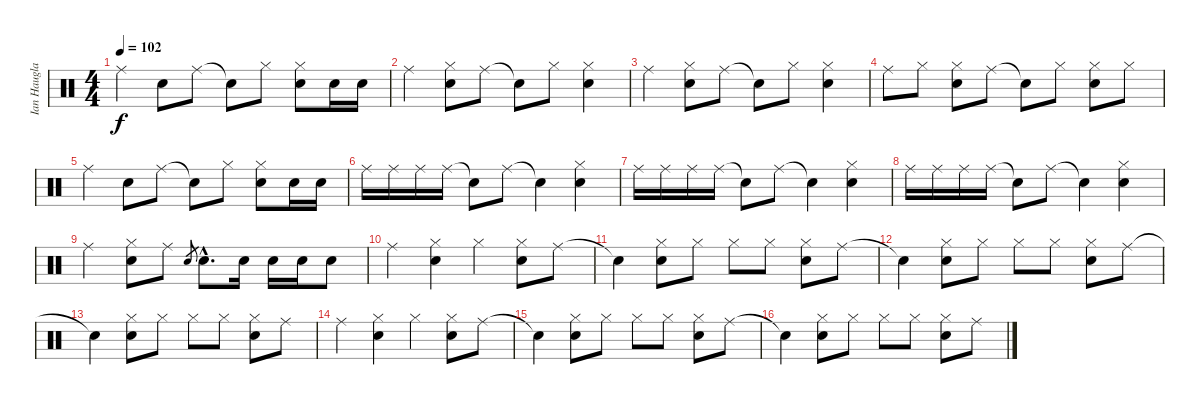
\track ("Ian Haugland Drums 2" "Ian Haugla") {instrument percussion}
\staff {score}
\articulation defaults
\ts (4 4)
\tempo 102
\clef neutral
\ks c "Ride (middle)".4{dy f} "Snare (hit) 2".8 "Ride (middle)".8 "Snare (hit)"{t}.8 "Hi-Hat (closed)".8
("Hi-Hat (closed)" "Snare (hit) 2").8 "Snare (hit) 2".16 "Snare (hit) 2".16 |
"Ride (middle)".4 ("Hi-Hat (closed)" "Snare (hit) 2").8 "Ride (middle)".8 "Snare (hit)"{t}.8 "Hi-Hat (closed)".8 ("Hi-Hat (closed)" "Snare (hit) 2").4 |
"Ride (middle)".4 ("Hi-Hat (closed)" "Snare (hit) 2").8 "Ride (middle)".8 "Snare (hit)"{t}.8 "Hi-Hat (closed)".8 ("Hi-Hat (closed)" "Snare (hit) 2").4 |
"Ride (middle)".8 "Hi-Hat (closed)".8 ("Hi-Hat (closed)" "Snare (hit) 2").8 "Ride (middle)".8 "Snare (hit)"{t}.8 "Hi-Hat (closed)".8 ("Hi-Hat (closed)" "Snare (hit) 2").8 "Hi-Hat (closed)".8 |
"Ride (middle)".4 "Snare (hit) 2".8 "Ride (middle)".8 "Snare (hit)"{t}.8 "Hi-Hat (closed)".8 ("Hi-Hat (closed)" "Snare (hit) 2").8 "Snare (hit) 2".16 "Snare (hit) 2".16 |
"Ride (middle)".16 "Ride (middle)".16 "Ride (middle)".16 "Ride (middle)".16 "Snare (hit)"{t}.8 "Ride (middle)".8 "Snare (hit)"{t}.4 ("Hi-Hat (closed)" "Snare (hit) 2").4 |
"Ride (middle)".16 "Ride (middle)".16 "Ride (middle)".16 "Ride (middle)".16 "Snare (hit)"{t}.8 "Ride (middle)".8 "Snare (hit)"{t}.4 ("Hi-Hat (closed)" "Snare (hit) 2").4 |
"Ride (middle)".16 "Ride (middle)".16 "Ride (middle)".16 "Ride (middle)".16 "Snare (hit)"{t}.8 "Ride (middle)".8 "Snare (hit)"{t}.4 ("Hi-Hat (closed)" "Snare (hit) 2").4 |
"Ride (middle)".4 ("Hi-Hat (closed)" "Snare (hit) 2").8 "Ride (middle)".8 "Snare (hit) 2".8{gr} "Snare (hit) 2"{hac}.8{d} "Snare (hit) 2".16 "Snare (hit) 2".16 "Snare (hit) 2".16 "Snare (hit) 2".8 |
"Ride (middle)".4 ("Hi-Hat (closed)" "Snare (hit) 2").4 "Hi-Hat (closed)".4 ("Hi-Hat (closed)" "Snare (hit) 2").8 "Ride (middle)".8 |
"Snare (hit)"{t}.4 ("Hi-Hat (closed)" "Snare (hit) 2").8 "Hi-Hat (closed)".8 "Hi-Hat (closed)".8 "Hi-Hat (closed)".8 ("Hi-Hat (closed)" "Snare (hit) 2").8 "Ride (middle)".8 |
"Snare (hit)"{t}.4 ("Hi-Hat (closed)" "Snare (hit) 2").8 "Hi-Hat (closed)".8 "Hi-Hat (closed)".8 "Hi-Hat (closed)".8 ("Hi-Hat (closed)" "Snare (hit) 2").8 "Ride (middle)".8 |
"Snare (hit)"{t}.4 ("Hi-Hat (closed)" "Snare (hit) 2").8 "Hi-Hat (closed)".8 "Hi-Hat (closed)".8 "Hi-Hat (closed)".8 ("Hi-Hat (closed)" "Snare (hit) 2").8 "Ride (middle)".8 |
"Ride (middle)".4 ("Hi-Hat (closed)" "Snare (hit) 2").4 "Hi-Hat (closed)".4 ("Hi-Hat (closed)" "Snare (hit) 2").8 "Ride (middle)".8 |
"Snare (hit)"{t}.4 ("Hi-Hat (closed)" "Snare (hit) 2").8 "Hi-Hat (closed)".8 "Hi-Hat (closed)".8 "Hi-Hat (closed)".8 ("Hi-Hat (closed)" "Snare (hit) 2").8 "Ride (middle)".8 |
"Snare (hit)"{t}.4 ("Hi-Hat (closed)" "Snare (hit) 2").8 "Hi-Hat (closed)".8 "Hi-Hat (closed)".8 "Hi-Hat (closed)".8 ("Hi-Hat (closed)" "Snare (hit) 2").8 "Ride (middle)".8
